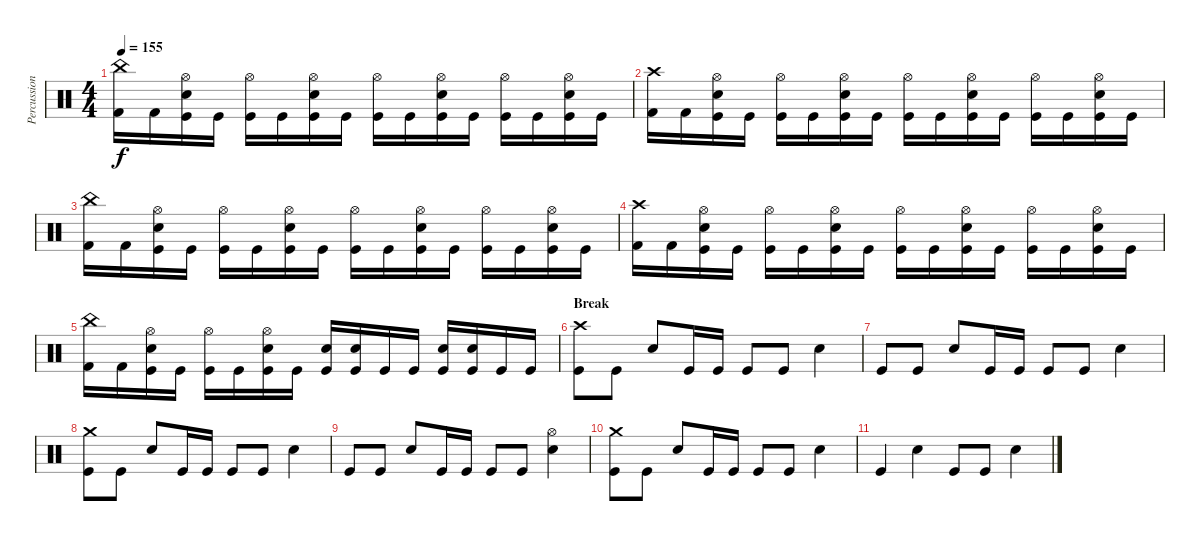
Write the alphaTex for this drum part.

\track ("Percussion" "Percussion") {instrument percussion}
\staff {score}
\articulation defaults
\ts (4 4)
\tempo 155
\clef neutral
\ks c
("China (hit)" "Kick (hit) 2").16{dy f} "Kick (hit) 2".16 ("Hi-Hat (open)" "Electric Snare (hit)" "Kick (hit)").16 "Kick (hit)".16 ("Hi-Hat (open)" "Kick (hit)").16 "Kick (hit)".16 ("Hi-Hat (open)" "Electric Snare (hit)" "Kick (hit)").16 "Kick (hit)".16 ("Hi-Hat (open)" "Kick (hit)").16 "Kick (hit)".16 ("Hi-Hat (open)" "Electric Snare (hit)" "Kick (hit)").16 "Kick (hit)".16 ("Hi-Hat (open)" "Kick (hit)").16 "Kick (hit)".16 ("Hi-Hat (open)" "Electric Snare (hit)" "Kick (hit)").16 "Kick (hit)".16 |
("Crash high (hit)" "Kick (hit) 2").16 "Kick (hit) 2".16 ("Hi-Hat (open)" "Electric Snare (hit)" "Kick (hit)").16 "Kick (hit)".16 ("Hi-Hat (open)" "Kick (hit)").16 "Kick (hit)".16 ("Hi-Hat (open)" "Electric Snare (hit)" "Kick (hit)").16 "Kick (hit)".16 ("Hi-Hat (open)" "Kick (hit)").16 "Kick (hit)".16 ("Hi-Hat (open)" "Electric Snare (hit)" "Kick (hit)").16 "Kick (hit)".16 ("Hi-Hat (open)" "Kick (hit)").16 "Kick (hit)".16 ("Hi-Hat (open)" "Electric Snare (hit)" "Kick (hit)").16 "Kick (hit)".16 |
("China (hit)" "Kick (hit) 2").16 "Kick (hit) 2".16 ("Hi-Hat (open)" "Electric Snare (hit)" "Kick (hit)").16 "Kick (hit)".16 ("Hi-Hat (open)" "Kick (hit)").16 "Kick (hit)".16 ("Hi-Hat (open)" "Electric Snare (hit)" "Kick (hit)").16 "Kick (hit)".16 ("Hi-Hat (open)" "Kick (hit)").16 "Kick (hit)".16 ("Hi-Hat (open)" "Electric Snare (hit)" "Kick (hit)").16 "Kick (hit)".16 ("Hi-Hat (open)" "Kick (hit)").16 "Kick (hit)".16 ("Hi-Hat (open)" "Electric Snare (hit)" "Kick (hit)").16 "Kick (hit)".16 |
("Crash high (hit)" "Kick (hit) 2").16 "Kick (hit) 2".16 ("Hi-Hat (open)" "Electric Snare (hit)" "Kick (hit)").16 "Kick (hit)".16 ("Hi-Hat (open)" "Kick (hit)").16 "Kick (hit)".16 ("Hi-Hat (open)" "Electric Snare (hit)" "Kick (hit)").16 "Kick (hit)".16 ("Hi-Hat (open)" "Kick (hit)").16 "Kick (hit)".16 ("Hi-Hat (open)" "Electric Snare (hit)" "Kick (hit)").16 "Kick (hit)".16 ("Hi-Hat (open)" "Kick (hit)").16 "Kick (hit)".16 ("Hi-Hat (open)" "Electric Snare (hit)" "Kick (hit)").16 "Kick (hit)".16 |
("China (hit)" "Kick (hit) 2").16 "Kick (hit) 2".16 ("Hi-Hat (open)" "Electric Snare (hit)" "Kick (hit)").16 "Kick (hit)".16 ("Hi-Hat (open)" "Kick (hit)").16 "Kick (hit)".16 ("Hi-Hat (open)" "Electric Snare (hit)" "Kick (hit)").16 "Kick (hit)".16 ("Electric Snare (hit)" "Kick (hit)").16 ("Electric Snare (hit)" "Kick (hit)").16 "Kick (hit)".16 "Kick (hit)".16 ("Electric Snare (hit)" "Kick (hit)").16 ("Electric Snare (hit)" "Kick (hit)").16 "Kick (hit)".16 "Kick (hit)".16 |
\section ("" "Break")
("Crash high (hit)" "Kick (hit)").8 "Kick (hit)".8 "Electric Snare (hit)".8 "Kick (hit)".16 "Kick (hit)".16 "Kick (hit)".8 "Kick (hit)".8 "Electric Snare (hit)".4 |
"Kick (hit)".8 "Kick (hit)".8 "Electric Snare (hit)".8 "Kick (hit)".16 "Kick (hit)".16 "Kick (hit)".8 "Kick (hit)".8 "Electric Snare (hit)".4 |
("Crash medium (hit)" "Kick (hit)").8 "Kick (hit)".8 "Electric Snare (hit)".8 "Kick (hit)".16 "Kick (hit)".16 "Kick (hit)".8 "Kick (hit)".8 "Electric Snare (hit)".4 |
"Kick (hit)".8 "Kick (hit)".8 "Electric Snare (hit)".8 "Kick (hit)".16 "Kick (hit)".16 "Kick (hit)".8 "Kick (hit)".8 ("Hi-Hat (open)" "Electric Snare (hit)").4 |
("Crash medium (hit)" "Kick (hit)").8 "Kick (hit)".8 "Electric Snare (hit)".8 "Kick (hit)".16 "Kick (hit)".16 "Kick (hit)".8 "Kick (hit)".8 "Electric Snare (hit)".4 |
"Kick (hit)".4 "Electric Snare (hit)".4 "Kick (hit)".8 "Kick (hit)".8 "Electric Snare (hit)".4
